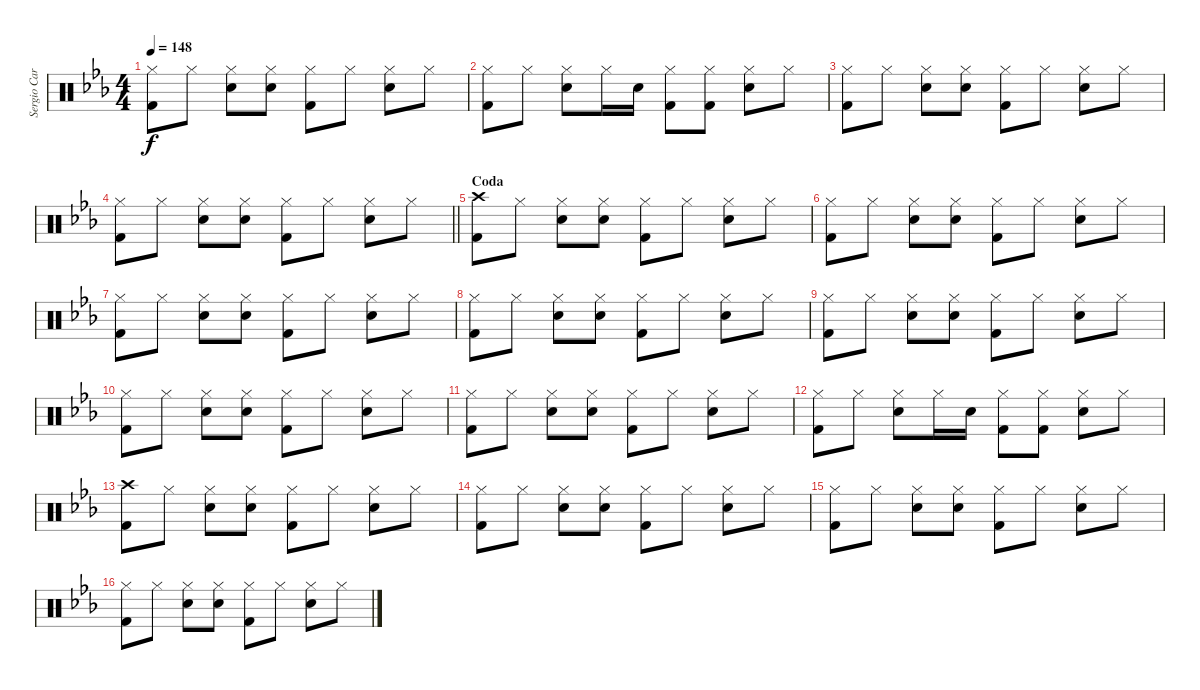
\track ("Sergio Carnevale [Batteria]" "Sergio Car") {instrument percussion}
\staff {score}
\articulation defaults
\ts (4 4)
\tempo 148
\clef neutral
\ks cminor
("Hi-Hat (closed)" "Kick (hit) 2").8{dy f} "Hi-Hat (closed)".8 ("Hi-Hat (closed)" "Snare (hit) 2").8 ("Hi-Hat (closed)" "Snare (hit) 2").8 ("Hi-Hat (closed)" "Kick (hit) 2").8 "Hi-Hat (closed)".8 ("Hi-Hat (closed)" "Snare (hit) 2").8 "Hi-Hat (closed)".8 |
("Hi-Hat (closed)" "Kick (hit) 2").8 "Hi-Hat (closed)".8 ("Hi-Hat (closed)" "Snare (hit) 2").8 "Hi-Hat (closed)".16 "Snare (hit) 2".16 ("Hi-Hat (closed)" "Kick (hit) 2").8 ("Hi-Hat (closed)" "Kick (hit) 2").8 ("Hi-Hat (closed)" "Snare (hit) 2").8 "Hi-Hat (closed)".8 |
("Hi-Hat (closed)" "Kick (hit) 2").8 "Hi-Hat (closed)".8 ("Hi-Hat (closed)" "Snare (hit) 2").8 ("Hi-Hat (closed)" "Snare (hit) 2").8 ("Hi-Hat (closed)" "Kick (hit) 2").8 "Hi-Hat (closed)".8 ("Hi-Hat (closed)" "Snare (hit) 2").8 "Hi-Hat (closed)".8 |
\barLineRight lightlight
("Hi-Hat (closed)" "Kick (hit) 2").8 "Hi-Hat (closed)".8 ("Hi-Hat (closed)" "Snare (hit) 2").8 ("Hi-Hat (closed)" "Snare (hit) 2").8 ("Hi-Hat (closed)" "Kick (hit) 2").8 "Hi-Hat (closed)".8 ("Hi-Hat (closed)" "Snare (hit) 2").8 "Hi-Hat (closed)".8 |
\section ("" "Coda")
("Crash high (hit)" "Kick (hit) 2").8 "Hi-Hat (closed)".8 ("Hi-Hat (closed)" "Snare (hit) 2").8 ("Hi-Hat (closed)" "Snare (hit) 2").8 ("Hi-Hat (closed)" "Kick (hit) 2").8 "Hi-Hat (closed)".8 ("Hi-Hat (closed)" "Snare (hit) 2").8 "Hi-Hat (closed)".8 |
("Hi-Hat (closed)" "Kick (hit) 2").8 "Hi-Hat (closed)".8 ("Hi-Hat (closed)" "Snare (hit) 2").8 ("Hi-Hat (closed)" "Snare (hit) 2").8 ("Hi-Hat (closed)" "Kick (hit) 2").8 "Hi-Hat (closed)".8 ("Hi-Hat (closed)" "Snare (hit) 2").8 "Hi-Hat (closed)".8 |
("Hi-Hat (closed)" "Kick (hit) 2").8 "Hi-Hat (closed)".8 ("Hi-Hat (closed)" "Snare (hit) 2").8 ("Hi-Hat (closed)" "Snare (hit) 2").8 ("Hi-Hat (closed)" "Kick (hit) 2").8 "Hi-Hat (closed)".8 ("Hi-Hat (closed)" "Snare (hit) 2").8 "Hi-Hat (closed)".8 |
("Hi-Hat (closed)" "Kick (hit) 2").8 "Hi-Hat (closed)".8 ("Hi-Hat (closed)" "Snare (hit) 2").8 ("Hi-Hat (closed)" "Snare (hit) 2").8 ("Hi-Hat (closed)" "Kick (hit) 2").8 "Hi-Hat (closed)".8 ("Hi-Hat (closed)" "Snare (hit) 2").8 "Hi-Hat (closed)".8 |
("Hi-Hat (closed)" "Kick (hit) 2").8 "Hi-Hat (closed)".8 ("Hi-Hat (closed)" "Snare (hit) 2").8 ("Hi-Hat (closed)" "Snare (hit) 2").8 ("Hi-Hat (closed)" "Kick (hit) 2").8 "Hi-Hat (closed)".8 ("Hi-Hat (closed)" "Snare (hit) 2").8 "Hi-Hat (closed)".8 |
("Hi-Hat (closed)" "Kick (hit) 2").8 "Hi-Hat (closed)".8 ("Hi-Hat (closed)" "Snare (hit) 2").8 ("Hi-Hat (closed)" "Snare (hit) 2").8 ("Hi-Hat (closed)" "Kick (hit) 2").8 "Hi-Hat (closed)".8 ("Hi-Hat (closed)" "Snare (hit) 2").8 "Hi-Hat (closed)".8 |
("Hi-Hat (closed)" "Kick (hit) 2").8 "Hi-Hat (closed)".8 ("Hi-Hat (closed)" "Snare (hit) 2").8 ("Hi-Hat (closed)" "Snare (hit) 2").8 ("Hi-Hat (closed)" "Kick (hit) 2").8 "Hi-Hat (closed)".8 ("Hi-Hat (closed)" "Snare (hit) 2").8 "Hi-Hat (closed)".8 |
("Hi-Hat (closed)" "Kick (hit) 2").8 "Hi-Hat (closed)".8 ("Hi-Hat (closed)" "Snare (hit) 2").8 "Hi-Hat (closed)".16 "Snare (hit) 2".16 ("Hi-Hat (closed)" "Kick (hit) 2").8 ("Hi-Hat (closed)" "Kick (hit) 2").8 ("Hi-Hat (closed)" "Snare (hit) 2").8 "Hi-Hat (closed)".8 |
("Crash high (hit)" "Kick (hit) 2").8 "Hi-Hat (closed)".8 ("Hi-Hat (closed)" "Snare (hit) 2").8 ("Hi-Hat (closed)" "Snare (hit) 2").8 ("Hi-Hat (closed)" "Kick (hit) 2").8 "Hi-Hat (closed)".8 ("Hi-Hat (closed)" "Snare (hit) 2").8 "Hi-Hat (closed)".8 |
("Hi-Hat (closed)" "Kick (hit) 2").8 "Hi-Hat (closed)".8 ("Hi-Hat (closed)" "Snare (hit) 2").8 ("Hi-Hat (closed)" "Snare (hit) 2").8 ("Hi-Hat (closed)" "Kick (hit) 2").8 "Hi-Hat (closed)".8 ("Hi-Hat (closed)" "Snare (hit) 2").8 "Hi-Hat (closed)".8 |
("Hi-Hat (closed)" "Kick (hit) 2").8 "Hi-Hat (closed)".8 ("Hi-Hat (closed)" "Snare (hit) 2").8 ("Hi-Hat (closed)" "Snare (hit) 2").8 ("Hi-Hat (closed)" "Kick (hit) 2").8 "Hi-Hat (closed)".8 ("Hi-Hat (closed)" "Snare (hit) 2").8 "Hi-Hat (closed)".8 |
("Hi-Hat (closed)" "Kick (hit) 2").8 "Hi-Hat (closed)".8 ("Hi-Hat (closed)" "Snare (hit) 2").8 ("Hi-Hat (closed)" "Snare (hit) 2").8 ("Hi-Hat (closed)" "Kick (hit) 2").8 "Hi-Hat (closed)".8 ("Hi-Hat (closed)" "Snare (hit) 2").8 "Hi-Hat (closed)".8
